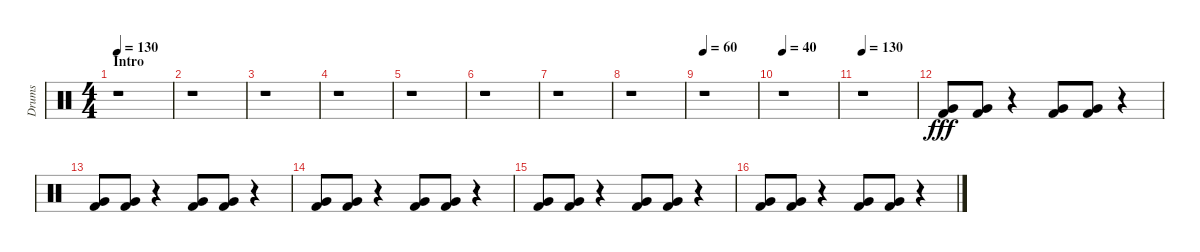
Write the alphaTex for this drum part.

\track ("Drums" "Drums") {instrument percussion}
\staff {score}
\articulation defaults
\ts (4 4)
\section ("" "Intro")
\tempo 130
\tempo 112
\tempo 130
\clef neutral
\ks c
r.1{dy fff} |
r.1 |
r.1 |
r.1 |
r.1 |
r.1 |
r.1 |
r.1 |
\tempo 60
r.1 |
\tempo 40
r.1 |
\tempo 130
r.1 |
("Kick (hit) 2" "Very Low Tom (hit)").8 ("Kick (hit) 2" "Very Low Tom (hit)").8 r.4 ("Kick (hit) 2" "Very Low Tom (hit)").8 ("Kick (hit) 2" "Very Low Tom (hit)").8 r.4 |
("Kick (hit) 2" "Very Low Tom (hit)").8 ("Kick (hit) 2" "Very Low Tom (hit)").8 r.4 ("Kick (hit) 2" "Very Low Tom (hit)").8 ("Kick (hit) 2" "Very Low Tom (hit)").8 r.4 |
("Kick (hit) 2" "Very Low Tom (hit)").8 ("Kick (hit) 2" "Very Low Tom (hit)").8 r.4 ("Kick (hit) 2" "Very Low Tom (hit)").8 ("Kick (hit) 2" "Very Low Tom (hit)").8 r.4 |
("Kick (hit) 2" "Very Low Tom (hit)").8 ("Kick (hit) 2" "Very Low Tom (hit)").8 r.4 ("Kick (hit) 2" "Very Low Tom (hit)").8 ("Kick (hit) 2" "Very Low Tom (hit)").8 r.4 |
("Kick (hit) 2" "Very Low Tom (hit)").8 ("Kick (hit) 2" "Very Low Tom (hit)").8 r.4 ("Kick (hit) 2" "Very Low Tom (hit)").8 ("Kick (hit) 2" "Very Low Tom (hit)").8 r.4
